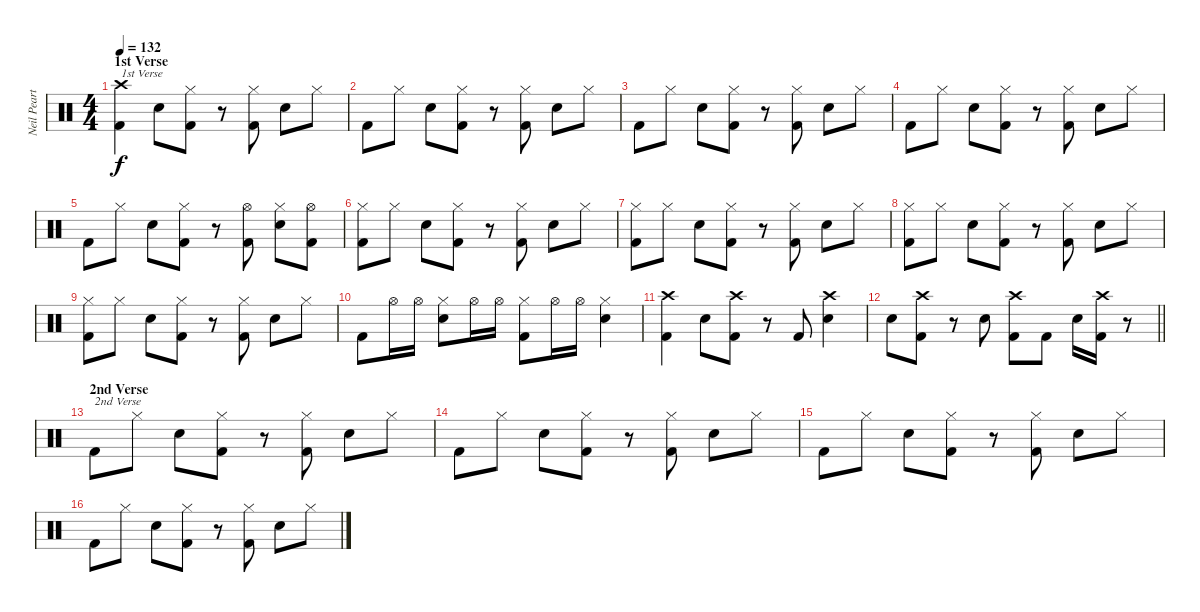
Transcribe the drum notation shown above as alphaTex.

\track ("Neil Peart" "Neil Peart") {instrument percussion}
\staff {score}
\articulation defaults
\ts (4 4)
\section ("" "1st Verse")
\tempo 132
\clef neutral
\ks c
("Crash high (hit)" "Kick (hit) 2").4{txt "1st Verse" dy f} "Electric Snare (hit)".8 ("Hi-Hat (closed)" "Kick (hit) 2").8 r.8 ("Hi-Hat (closed)" "Kick (hit) 2").8 "Electric Snare (hit)".8 "Hi-Hat (closed)".8 |
"Kick (hit) 2".8 "Hi-Hat (closed)".8 "Electric Snare (hit)".8 ("Hi-Hat (closed)" "Kick (hit) 2").8 r.8 ("Hi-Hat (closed)" "Kick (hit) 2").8 "Electric Snare (hit)".8 "Hi-Hat (closed)".8 |
"Kick (hit) 2".8 "Hi-Hat (closed)".8 "Electric Snare (hit)".8 ("Hi-Hat (closed)" "Kick (hit) 2").8 r.8 ("Hi-Hat (closed)" "Kick (hit) 2").8 "Electric Snare (hit)".8 "Hi-Hat (closed)".8 |
"Kick (hit) 2".8 "Hi-Hat (closed)".8 "Electric Snare (hit)".8 ("Hi-Hat (closed)" "Kick (hit) 2").8 r.8 ("Hi-Hat (closed)" "Kick (hit) 2").8 "Electric Snare (hit)".8 "Hi-Hat (closed)".8 |
"Kick (hit) 2".8 "Hi-Hat (closed)".8 "Electric Snare (hit)".8 ("Hi-Hat (closed)" "Kick (hit) 2").8 r.8 ("Hi-Hat (open)" "Kick (hit) 2").8 ("Hi-Hat (closed)" "Electric Snare (hit)").8 ("Hi-Hat (open)" "Kick (hit) 2").8 |
("Hi-Hat (closed)" "Kick (hit) 2").8 "Hi-Hat (closed)".8 "Electric Snare (hit)".8 ("Hi-Hat (closed)" "Kick (hit) 2").8 r.8 ("Hi-Hat (closed)" "Kick (hit) 2").8 "Electric Snare (hit)".8 "Hi-Hat (closed)".8 |
("Hi-Hat (closed)" "Kick (hit) 2").8 "Hi-Hat (closed)".8 "Electric Snare (hit)".8 ("Hi-Hat (closed)" "Kick (hit) 2").8 r.8 ("Hi-Hat (closed)" "Kick (hit) 2").8 "Electric Snare (hit)".8 "Hi-Hat (closed)".8 |
("Hi-Hat (closed)" "Kick (hit) 2").8 "Hi-Hat (closed)".8 "Electric Snare (hit)".8 ("Hi-Hat (closed)" "Kick (hit) 2").8 r.8 ("Hi-Hat (closed)" "Kick (hit) 2").8 "Electric Snare (hit)".8 "Hi-Hat (closed)".8 |
("Hi-Hat (closed)" "Kick (hit) 2").8 "Hi-Hat (closed)".8 "Electric Snare (hit)".8 ("Hi-Hat (closed)" "Kick (hit) 2").8 r.8 ("Hi-Hat (closed)" "Kick (hit) 2").8 "Electric Snare (hit)".8 "Hi-Hat (closed)".8 |
"Kick (hit) 2".8 "Hi-Hat (open)".16 "Hi-Hat (open)".16 ("Hi-Hat (closed)" "Electric Snare (hit)").8 "Hi-Hat (open)".16 "Hi-Hat (open)".16 ("Hi-Hat (closed)" "Kick (hit) 2").8 "Hi-Hat (open)".16 "Hi-Hat (open)".16 ("Hi-Hat (closed)" "Electric Snare (hit)").4 |
("Crash high (hit)" "Kick (hit) 2").4 "Electric Snare (hit)".8 ("Crash high (hit)" "Kick (hit) 2").8 r.8 "Kick (hit) 2".8 ("Crash high (hit)" "Electric Snare (hit)").4 |
\barLineRight lightlight "Electric Snare (hit)".8
("Crash high (hit)" "Kick (hit) 2").8 r.8 "Electric Snare (hit)".8 ("Crash high (hit)" "Kick (hit) 2").8 "Kick (hit) 2".8 "Electric Snare (hit)".16 ("Crash high (hit)" "Kick (hit) 2").16 r.8 |
\section ("" "2nd Verse")
"Kick (hit) 2".8{txt "2nd Verse"} "Hi-Hat (closed)".8 "Electric Snare (hit)".8 ("Hi-Hat (closed)" "Kick (hit) 2").8 r.8 ("Hi-Hat (closed)" "Kick (hit) 2").8 "Electric Snare (hit)".8 "Hi-Hat (closed)".8 |
"Kick (hit) 2".8 "Hi-Hat (closed)".8 "Electric Snare (hit)".8 ("Hi-Hat (closed)" "Kick (hit) 2").8 r.8 ("Hi-Hat (closed)" "Kick (hit) 2").8 "Electric Snare (hit)".8 "Hi-Hat (closed)".8 |
"Kick (hit) 2".8 "Hi-Hat (closed)".8 "Electric Snare (hit)".8 ("Hi-Hat (closed)" "Kick (hit) 2").8 r.8 ("Hi-Hat (closed)" "Kick (hit) 2").8 "Electric Snare (hit)".8 "Hi-Hat (closed)".8 |
"Kick (hit) 2".8 "Hi-Hat (closed)".8 "Electric Snare (hit)".8 ("Hi-Hat (closed)" "Kick (hit) 2").8 r.8 ("Hi-Hat (closed)" "Kick (hit) 2").8 "Electric Snare (hit)".8 "Hi-Hat (closed)".8
